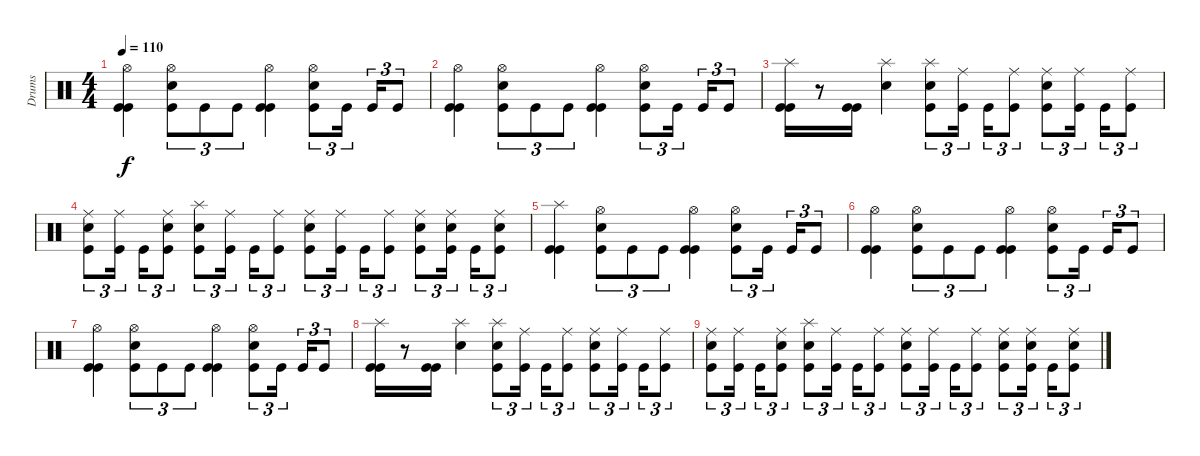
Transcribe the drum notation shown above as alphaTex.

\track ("Drums" "Drums") {instrument percussion}
\staff {score}
\articulation defaults
\ts (4 4)
\tempo 110
\clef neutral
\ks c
("Hi-Hat (open)" "Kick (hit)" "Kick (hit)").4{dy f} ("Hi-Hat (open)" "Snare (hit) 2" "Kick (hit)").8{tu (3 2)} "Kick (hit)".8{tu (3 2)} "Kick (hit)".8{tu (3 2)} ("Hi-Hat (open)" "Kick (hit)" "Kick (hit)").4 ("Hi-Hat (open)" "Snare (hit) 2" "Kick (hit)").8{tu (3 2)} "Kick (hit)".16{tu (3 2)} "Kick (hit)".16{tu (3 2)} "Kick (hit)".8{tu (3 2)} |
("Hi-Hat (open)" "Kick (hit)" "Kick (hit)").4{volume 12} ("Hi-Hat (open)" "Snare (hit) 2" "Kick (hit)").8{tu (3 2)} "Kick (hit)".8{tu (3 2)} "Kick (hit)".8{tu (3 2)} ("Hi-Hat (open)" "Kick (hit)" "Kick (hit)").4 ("Hi-Hat (open)" "Snare (hit) 2" "Kick (hit)").8{tu (3 2)} "Kick (hit)".16{tu (3 2)} "Kick (hit)".16{tu (3 2)} "Kick (hit)".8{tu (3 2)} |
("Splash (hit)" "Kick (hit)" "Kick (hit)").16 r.8 ("Kick (hit)" "Kick (hit)").16 ("Splash (hit)" "Snare (hit) 2").4 ("Splash (hit)" "Snare (hit) 2" "Kick (hit)").8{tu (3 2)} ("Ride (middle)" "Kick (hit)").16{tu (3 2)} "Kick (hit)".16{tu (3 2)} ("Ride (middle)" "Kick (hit)").8{tu (3 2)} ("Ride (middle)" "Snare (hit) 2" "Kick (hit)").8{tu (3 2)} ("Ride (middle)" "Kick (hit)").16{tu (3 2)} "Kick (hit)".16{tu (3 2)} ("Ride (middle)" "Kick (hit)").8{tu (3 2)} |
("Ride (middle)" "Snare (hit) 2" "Kick (hit)").8{tu (3 2) volume 10} ("Ride (middle)" "Kick (hit)").16{tu (3 2)} "Kick (hit)".16{tu (3 2)} ("Ride (middle)" "Snare (hit) 2" "Kick (hit)").8{tu (3 2)} ("Splash (hit)" "Snare (hit) 2" "Kick (hit)").8{tu (3 2)} ("Ride (middle)" "Kick (hit)").16{tu (3 2)} "Kick (hit)".16{tu (3 2)} ("Ride (middle)" "Kick (hit)").8{tu (3 2)} ("Ride (middle)" "Snare (hit) 2" "Kick (hit)").8{tu (3 2)} ("Ride (middle)" "Kick (hit)").16{tu (3 2)} "Kick (hit)".16{tu (3 2)} ("Ride (middle)" "Kick (hit)").8{tu (3 2)} ("Ride (middle)" "Snare (hit) 2" "Kick (hit)").8{tu (3 2)} ("Ride (middle)" "Snare (hit) 2" "Kick (hit)").16{tu (3 2)} "Kick (hit)".16{tu (3 2)} ("Ride (middle)" "Snare (hit) 2" "Kick (hit)").8{tu (3 2)} |
("Splash (hit)" "Kick (hit)" "Kick (hit)").4 ("Hi-Hat (open)" "Snare (hit) 2" "Kick (hit)").8{tu (3 2)} "Kick (hit)".8{tu (3 2)} "Kick (hit)".8{tu (3 2)} ("Hi-Hat (open)" "Kick (hit)" "Kick (hit)").4 ("Hi-Hat (open)" "Snare (hit) 2" "Kick (hit)").8{tu (3 2)} "Kick (hit)".16{tu (3 2)} "Kick (hit)".16{tu (3 2)} "Kick (hit)".8{tu (3 2)} |
("Hi-Hat (open)" "Kick (hit)" "Kick (hit)").4{volume 8} ("Hi-Hat (open)" "Snare (hit) 2" "Kick (hit)").8{tu (3 2)} "Kick (hit)".8{tu (3 2)} "Kick (hit)".8{tu (3 2)} ("Hi-Hat (open)" "Kick (hit)" "Kick (hit)").4 ("Hi-Hat (open)" "Snare (hit) 2" "Kick (hit)").8{tu (3 2)} "Kick (hit)".16{tu (3 2)} "Kick (hit)".16{tu (3 2)} "Kick (hit)".8{tu (3 2)} |
("Hi-Hat (open)" "Kick (hit)" "Kick (hit)").4 ("Hi-Hat (open)" "Snare (hit) 2" "Kick (hit)").8{tu (3 2)} "Kick (hit)".8{tu (3 2)} "Kick (hit)".8{tu (3 2)} ("Hi-Hat (open)" "Kick (hit)" "Kick (hit)").4 ("Hi-Hat (open)" "Snare (hit) 2" "Kick (hit)").8{tu (3 2)} "Kick (hit)".16{tu (3 2)} "Kick (hit)".16{tu (3 2)} "Kick (hit)".8{tu (3 2)} |
("Splash (hit)" "Kick (hit)" "Kick (hit)").16{volume 0} r.8 ("Kick (hit)" "Kick (hit)").16 ("Splash (hit)" "Snare (hit) 2").4 ("Splash (hit)" "Snare (hit) 2" "Kick (hit)").8{tu (3 2)} ("Ride (middle)" "Kick (hit)").16{tu (3 2)} "Kick (hit)".16{tu (3 2)} ("Ride (middle)" "Kick (hit)").8{tu (3 2)} ("Ride (middle)" "Snare (hit) 2" "Kick (hit)").8{tu (3 2)} ("Ride (middle)" "Kick (hit)").16{tu (3 2)} "Kick (hit)".16{tu (3 2)} ("Ride (middle)" "Kick (hit)").8{tu (3 2)} |
("Ride (middle)" "Snare (hit) 2" "Kick (hit)").8{tu (3 2)} ("Ride (middle)" "Kick (hit)").16{tu (3 2)} "Kick (hit)".16{tu (3 2)} ("Ride (middle)" "Snare (hit) 2" "Kick (hit)").8{tu (3 2)} ("Splash (hit)" "Snare (hit) 2" "Kick (hit)").8{tu (3 2)} ("Ride (middle)" "Kick (hit)").16{tu (3 2)} "Kick (hit)".16{tu (3 2)} ("Ride (middle)" "Kick (hit)").8{tu (3 2)} ("Ride (middle)" "Snare (hit) 2" "Kick (hit)").8{tu (3 2)} ("Ride (middle)" "Kick (hit)").16{tu (3 2)} "Kick (hit)".16{tu (3 2)} ("Ride (middle)" "Kick (hit)").8{tu (3 2)} ("Ride (middle)" "Snare (hit) 2" "Kick (hit)").8{tu (3 2)} ("Ride (middle)" "Snare (hit) 2" "Kick (hit)").16{tu (3 2)} "Kick (hit)".16{tu (3 2)} ("Ride (middle)" "Snare (hit) 2" "Kick (hit)").8{tu (3 2)}
